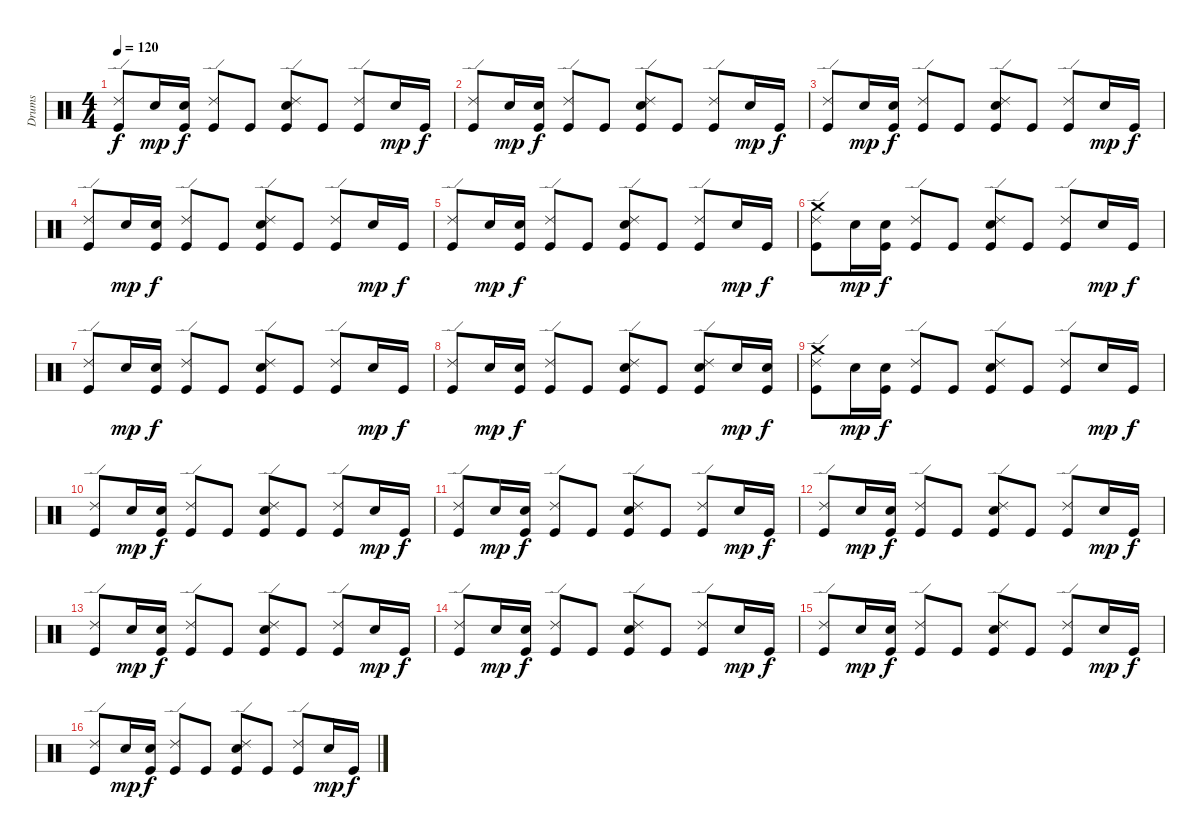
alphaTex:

\track ("Drums" "Drums") {instrument percussion}
\staff {score}
\articulation defaults
\ts (4 4)
\tempo 120
\clef neutral
\ks c
("Kick (hit)" "Ride (edge) 2").8{dy f} "Electric Snare (hit)".16{dy mp} ("Kick (hit)" "Electric Snare (hit)").16{dy f} ("Kick (hit)" "Ride (edge) 2").8 "Kick (hit)".8 ("Kick (hit)" "Electric Snare (hit)" "Ride (edge) 2").8 "Kick (hit)".8 ("Kick (hit)" "Ride (edge) 2").8 "Electric Snare (hit)".16{dy mp} "Kick (hit)".16{dy f} |
("Kick (hit)" "Ride (edge) 2").8 "Electric Snare (hit)".16{dy mp} ("Kick (hit)" "Electric Snare (hit)").16{dy f} ("Kick (hit)" "Ride (edge) 2").8 "Kick (hit)".8 ("Kick (hit)" "Electric Snare (hit)" "Ride (edge) 2").8 "Kick (hit)".8 ("Kick (hit)" "Ride (edge) 2").8 "Electric Snare (hit)".16{dy mp} "Kick (hit)".16{dy f} |
("Kick (hit)" "Ride (edge) 2").8 "Electric Snare (hit)".16{dy mp} ("Kick (hit)" "Electric Snare (hit)").16{dy f} ("Kick (hit)" "Ride (edge) 2").8 "Kick (hit)".8 ("Kick (hit)" "Electric Snare (hit)" "Ride (edge) 2").8 "Kick (hit)".8 ("Kick (hit)" "Ride (edge) 2").8 "Electric Snare (hit)".16{dy mp} "Kick (hit)".16{dy f} |
("Kick (hit)" "Ride (edge) 2").8 "Electric Snare (hit)".16{dy mp} ("Kick (hit)" "Electric Snare (hit)").16{dy f} ("Kick (hit)" "Ride (edge) 2").8 "Kick (hit)".8 ("Kick (hit)" "Electric Snare (hit)" "Ride (edge) 2").8 "Kick (hit)".8 ("Kick (hit)" "Ride (edge) 2").8 "Electric Snare (hit)".16{dy mp} "Kick (hit)".16{dy f} |
("Kick (hit)" "Ride (edge) 2").8 "Electric Snare (hit)".16{dy mp} ("Kick (hit)" "Electric Snare (hit)").16{dy f} ("Kick (hit)" "Ride (edge) 2").8 "Kick (hit)".8 ("Kick (hit)" "Electric Snare (hit)" "Ride (edge) 2").8 "Kick (hit)".8 ("Kick (hit)" "Ride (edge) 2").8 "Electric Snare (hit)".16{dy mp} "Kick (hit)".16{dy f} |
("Kick (hit)" "Crash medium (hit)" "Ride (edge) 2").8 "Electric Snare (hit)".16{dy mp} ("Kick (hit)" "Electric Snare (hit)").16{dy f} ("Kick (hit)" "Ride (edge) 2").8 "Kick (hit)".8 ("Kick (hit)" "Electric Snare (hit)" "Ride (edge) 2").8 "Kick (hit)".8 ("Kick (hit)" "Ride (edge) 2").8 "Electric Snare (hit)".16{dy mp} "Kick (hit)".16{dy f} |
("Kick (hit)" "Ride (edge) 2").8 "Electric Snare (hit)".16{dy mp} ("Kick (hit)" "Electric Snare (hit)").16{dy f} ("Kick (hit)" "Ride (edge) 2").8 "Kick (hit)".8 ("Kick (hit)" "Electric Snare (hit)" "Ride (edge) 2").8 "Kick (hit)".8 ("Kick (hit)" "Ride (edge) 2").8 "Electric Snare (hit)".16{dy mp} "Kick (hit)".16{dy f} |
("Kick (hit)" "Ride (edge) 2").8 "Electric Snare (hit)".16{dy mp} ("Kick (hit)" "Electric Snare (hit)").16{dy f} ("Kick (hit)" "Ride (edge) 2").8 "Kick (hit)".8 ("Kick (hit)" "Electric Snare (hit)" "Ride (edge) 2").8 "Kick (hit)".8 ("Kick (hit)" "Electric Snare (hit)" "Ride (edge) 2").8 "Electric Snare (hit)".16{dy mp} ("Kick (hit)" "Electric Snare (hit)").16{dy f} |
("Kick (hit)" "Crash medium (hit)" "Ride (edge) 2").8 "Electric Snare (hit)".16{dy mp} ("Kick (hit)" "Electric Snare (hit)").16{dy f} ("Kick (hit)" "Ride (edge) 2").8 "Kick (hit)".8 ("Kick (hit)" "Electric Snare (hit)" "Ride (edge) 2").8 "Kick (hit)".8 ("Kick (hit)" "Ride (edge) 2").8 "Electric Snare (hit)".16{dy mp} "Kick (hit)".16{dy f} |
("Kick (hit)" "Ride (edge) 2").8 "Electric Snare (hit)".16{dy mp} ("Kick (hit)" "Electric Snare (hit)").16{dy f} ("Kick (hit)" "Ride (edge) 2").8 "Kick (hit)".8 ("Kick (hit)" "Electric Snare (hit)" "Ride (edge) 2").8 "Kick (hit)".8 ("Kick (hit)" "Ride (edge) 2").8 "Electric Snare (hit)".16{dy mp} "Kick (hit)".16{dy f} |
("Kick (hit)" "Ride (edge) 2").8 "Electric Snare (hit)".16{dy mp} ("Kick (hit)" "Electric Snare (hit)").16{dy f} ("Kick (hit)" "Ride (edge) 2").8 "Kick (hit)".8 ("Kick (hit)" "Electric Snare (hit)" "Ride (edge) 2").8 "Kick (hit)".8 ("Kick (hit)" "Ride (edge) 2").8 "Electric Snare (hit)".16{dy mp} "Kick (hit)".16{dy f} |
("Kick (hit)" "Ride (edge) 2").8 "Electric Snare (hit)".16{dy mp} ("Kick (hit)" "Electric Snare (hit)").16{dy f} ("Kick (hit)" "Ride (edge) 2").8 "Kick (hit)".8 ("Kick (hit)" "Electric Snare (hit)" "Ride (edge) 2").8 "Kick (hit)".8 ("Kick (hit)" "Ride (edge) 2").8 "Electric Snare (hit)".16{dy mp} "Kick (hit)".16{dy f} |
("Kick (hit)" "Ride (edge) 2").8 "Electric Snare (hit)".16{dy mp} ("Kick (hit)" "Electric Snare (hit)").16{dy f} ("Kick (hit)" "Ride (edge) 2").8 "Kick (hit)".8 ("Kick (hit)" "Electric Snare (hit)" "Ride (edge) 2").8 "Kick (hit)".8 ("Kick (hit)" "Ride (edge) 2").8 "Electric Snare (hit)".16{dy mp} "Kick (hit)".16{dy f} |
("Kick (hit)" "Ride (edge) 2").8 "Electric Snare (hit)".16{dy mp} ("Kick (hit)" "Electric Snare (hit)").16{dy f} ("Kick (hit)" "Ride (edge) 2").8 "Kick (hit)".8 ("Kick (hit)" "Electric Snare (hit)" "Ride (edge) 2").8 "Kick (hit)".8 ("Kick (hit)" "Ride (edge) 2").8 "Electric Snare (hit)".16{dy mp} "Kick (hit)".16{dy f} |
("Kick (hit)" "Ride (edge) 2").8 "Electric Snare (hit)".16{dy mp} ("Kick (hit)" "Electric Snare (hit)").16{dy f} ("Kick (hit)" "Ride (edge) 2").8 "Kick (hit)".8 ("Kick (hit)" "Electric Snare (hit)" "Ride (edge) 2").8 "Kick (hit)".8 ("Kick (hit)" "Ride (edge) 2").8 "Electric Snare (hit)".16{dy mp} "Kick (hit)".16{dy f} |
("Kick (hit)" "Ride (edge) 2").8 "Electric Snare (hit)".16{dy mp} ("Kick (hit)" "Electric Snare (hit)").16{dy f} ("Kick (hit)" "Ride (edge) 2").8 "Kick (hit)".8 ("Kick (hit)" "Electric Snare (hit)" "Ride (edge) 2").8 "Kick (hit)".8 ("Kick (hit)" "Ride (edge) 2").8 "Electric Snare (hit)".16{dy mp} "Kick (hit)".16{dy f}
